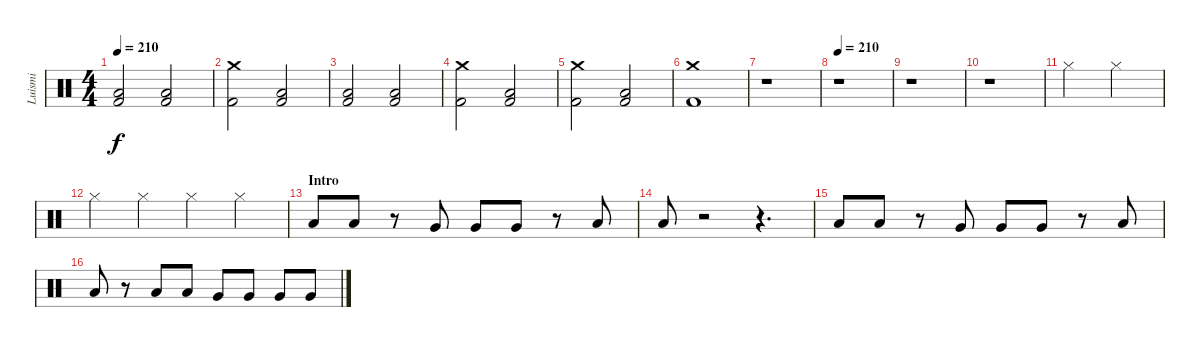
\track ("Luismi" "Luismi") {instrument percussion}
\staff {score}
\articulation defaults
\ts (4 4)
\tempo 210
\clef neutral
\ks c
("Low Floor Tom (hit)" "Kick (hit) 2").2{dy f} ("Low Floor Tom (hit)" "Kick (hit) 2").2 |
("Crash medium (hit)" "Kick (hit) 2").2 ("Low Floor Tom (hit)" "Kick (hit) 2").2 |
("Low Floor Tom (hit)" "Kick (hit) 2").2 ("Low Floor Tom (hit)" "Kick (hit) 2").2 |
("Crash medium (hit)" "Kick (hit) 2").2 ("Low Floor Tom (hit)" "Kick (hit) 2").2 |
("Crash medium (hit)" "Kick (hit) 2").2 ("Low Floor Tom (hit)" "Kick (hit) 2").2 |
("Crash medium (hit)" "Kick (hit) 2").1 |
r.1 |
\tempo 210
r.1 |
r.1 |
r.1 |
"Hi-Hat (closed)".2 "Hi-Hat (closed)".2 |
"Hi-Hat (closed)".4 "Hi-Hat (closed)".4 "Hi-Hat (closed)".4 "Hi-Hat (closed)".4 |
\section ("" "Intro")
"Low Tom (hit)".8 "Low Tom (hit)".8 r.8 "Very Low Tom (hit)".8 "Very Low Tom (hit)".8 "Very Low Tom (hit)".8 r.8 "Low Floor Tom (hit)".8 |
"Low Floor Tom (hit)".8 r.2 r.4{d} |
"Low Tom (hit)".8 "Low Tom (hit)".8 r.8 "Very Low Tom (hit)".8 "Very Low Tom (hit)".8 "Very Low Tom (hit)".8 r.8 "Low Floor Tom (hit)".8 |
"Low Floor Tom (hit)".8 r.8 "Low Tom (hit)".8 "Low Tom (hit)".8 "Very Low Tom (hit)".8 "Very Low Tom (hit)".8 "Very Low Tom (hit)".8 "Very Low Tom (hit)".8
